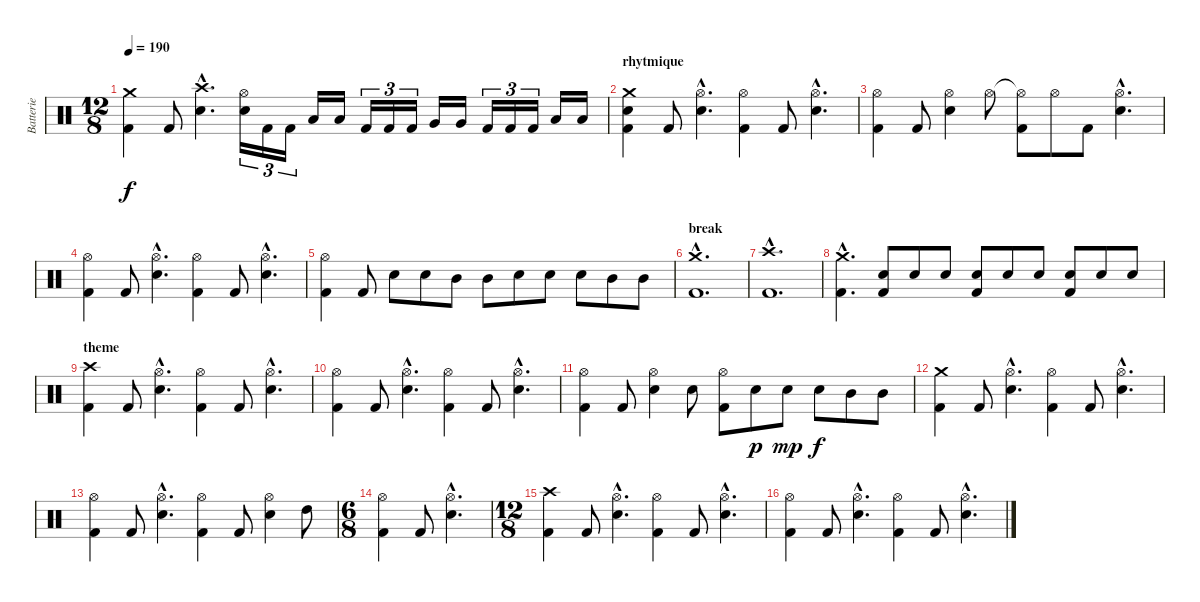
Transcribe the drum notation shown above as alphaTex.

\track ("Batterie" "Batterie") {instrument percussion}
\staff {score}
\articulation defaults
\ts (12 8)
\tempo 190
\clef neutral
\ks c
("Crash medium (hit)" "Kick (hit) 2").4{dy f} "Kick (hit) 2".8 ("Crash high (hit)"{hac} "Snare (hit) 2"{hac}).4{d} ("Hi-Hat (open)" "Snare (hit) 2").16{tu (3 2)} "Kick (hit) 2".16{tu (3 2)} "Kick (hit) 2".16{tu (3 2)} "Low Tom (hit)".16 "Low Tom (hit)".16 "Kick (hit) 2".16{tu (3 2)} "Kick (hit) 2".16{tu (3 2)} "Kick (hit) 2".16{tu (3 2)} "Very Low Tom (hit)".16 "Very Low Tom (hit)".16 "Kick (hit) 2".16{tu (3 2)} "Kick (hit) 2".16{tu (3 2)} "Kick (hit) 2".16{tu (3 2)} "Low Floor Tom (hit)".16 "Low Floor Tom (hit)".16 |
\section ("" "rhytmique")
("Crash medium (hit)" "Snare (hit) 2" "Kick (hit) 2").4 "Kick (hit) 2".8 ("Hi-Hat (open)"{hac} "Snare (hit) 2"{hac}).4{d} ("Hi-Hat (open)" "Kick (hit) 2").4 "Kick (hit) 2".8 ("Hi-Hat (open)"{hac} "Snare (hit) 2"{hac}).4{d} |
("Hi-Hat (open)" "Kick (hit) 2").4 "Kick (hit) 2".8 ("Hi-Hat (open)" "Snare (hit) 2").4 "Hi-Hat (open)".8 ("Hi-Hat (open)"{t} "Kick (hit) 2").8 "Hi-Hat (open)".8 "Kick (hit) 2".8 ("Hi-Hat (open)"{hac} "Snare (hit) 2"{hac}).4{d} |
("Hi-Hat (open)" "Kick (hit) 2").4 "Kick (hit) 2".8 ("Hi-Hat (open)"{hac} "Snare (hit) 2"{hac}).4{d} ("Hi-Hat (open)" "Kick (hit) 2").4 "Kick (hit) 2".8 ("Hi-Hat (open)"{hac} "Snare (hit) 2"{hac}).4{d} |
("Hi-Hat (open)" "Kick (hit) 2").4 "Kick (hit) 2".8 "Snare (hit) 2".8 "Snare (hit) 2".8 "Mid Tom (hit)".8 "Mid Tom (hit)".8 "Snare (hit) 2".8 "Snare (hit) 2".8 "Snare (hit) 2".8 "Mid Tom (hit)".8 "Mid Tom (hit)".8 |
\section ("" "break")
("Crash medium (hit)"{hac} "Kick (hit) 2"{hac}).1{d} |
("Crash high (hit)"{hac} "Kick (hit) 2"{hac}).1{d} |
("Crash medium (hit)"{hac} "Kick (hit) 2"{hac}).4{d} ("Snare (hit) 2" "Kick (hit) 2").8 "Snare (hit) 2".8 "Snare (hit) 2".8 ("Snare (hit) 2" "Kick (hit) 2").8 "Snare (hit) 2".8 "Snare (hit) 2".8 ("Snare (hit) 2" "Kick (hit) 2").8 "Snare (hit) 2".8 "Snare (hit) 2".8 |
\section ("" "theme")
("Crash high (hit)" "Kick (hit) 2").4 "Kick (hit) 2".8 ("Hi-Hat (open)"{hac} "Snare (hit) 2"{hac}).4{d} ("Hi-Hat (open)" "Kick (hit) 2").4 "Kick (hit) 2".8 ("Hi-Hat (open)"{hac} "Snare (hit) 2"{hac}).4{d} |
("Hi-Hat (open)" "Kick (hit) 2").4 "Kick (hit) 2".8 ("Hi-Hat (open)"{hac} "Snare (hit) 2"{hac}).4{d} ("Hi-Hat (open)" "Kick (hit) 2").4 "Kick (hit) 2".8 ("Hi-Hat (open)"{hac} "Snare (hit) 2"{hac}).4{d} |
("Hi-Hat (open)" "Kick (hit) 2").4 "Kick (hit) 2".8 ("Hi-Hat (open)" "Snare (hit) 2").4 "Snare (hit) 2".8 ("Hi-Hat (open)" "Kick (hit) 2").8 "Snare (hit) 2".8{dy p} "Snare (hit) 2".8{dy mp} "Snare (hit) 2".8{dy f} "Mid Tom (hit)".8 "Mid Tom (hit)".8 |
("Crash medium (hit)" "Kick (hit) 2").4 "Kick (hit) 2".8 ("Hi-Hat (open)"{hac} "Snare (hit) 2"{hac}).4{d} ("Hi-Hat (open)" "Kick (hit) 2").4 "Kick (hit) 2".8 ("Hi-Hat (open)"{hac} "Snare (hit) 2"{hac}).4{d} |
("Hi-Hat (open)" "Kick (hit) 2").4 "Kick (hit) 2".8 ("Hi-Hat (open)"{hac} "Snare (hit) 2"{hac}).4{d} ("Hi-Hat (open)" "Kick (hit) 2").4 "Kick (hit) 2".8 ("Hi-Hat (open)" "Snare (hit) 2").4 "High Tom (hit)".8 |
\ts (6 8)
("Hi-Hat (open)" "Kick (hit) 2").4 "Kick (hit) 2".8 ("Hi-Hat (open)"{hac} "Snare (hit) 2"{hac}).4{d} |
\ts (12 8)
("Crash high (hit)" "Kick (hit) 2").4 "Kick (hit) 2".8 ("Hi-Hat (open)"{hac} "Snare (hit) 2"{hac}).4{d} ("Hi-Hat (open)" "Kick (hit) 2").4 "Kick (hit) 2".8 ("Hi-Hat (open)"{hac} "Snare (hit) 2"{hac}).4{d} |
("Hi-Hat (open)" "Kick (hit) 2").4 "Kick (hit) 2".8 ("Hi-Hat (open)"{hac} "Snare (hit) 2"{hac}).4{d} ("Hi-Hat (open)" "Kick (hit) 2").4 "Kick (hit) 2".8 ("Hi-Hat (open)"{hac} "Snare (hit) 2"{hac}).4{d}
